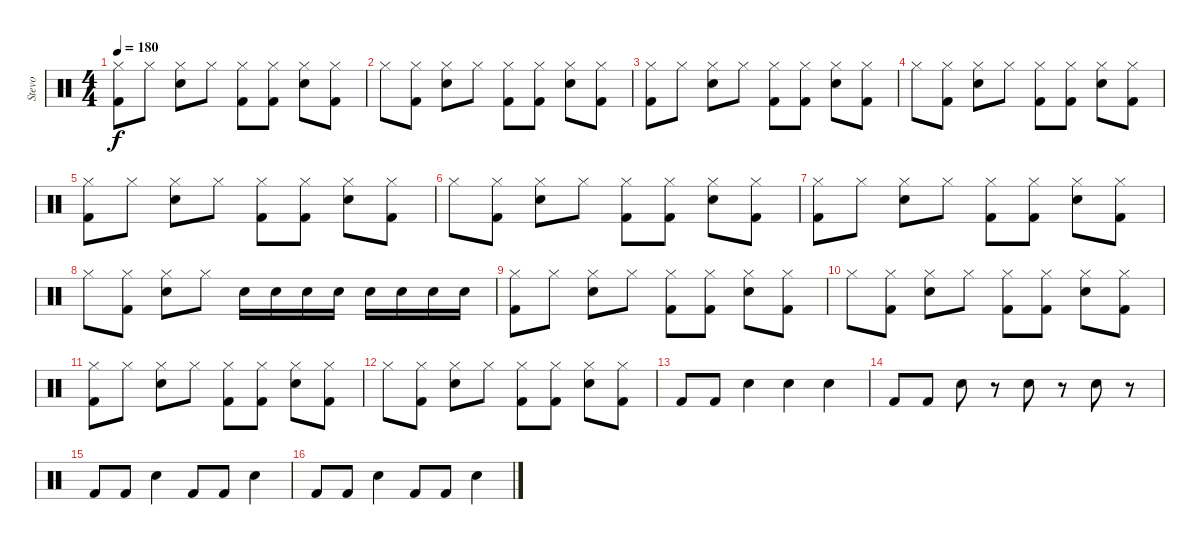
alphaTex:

\track ("Stevo" "Stevo") {instrument percussion}
\staff {score}
\articulation defaults
\ts (4 4)
\tempo 180
\clef neutral
\ks c
("Hi-Hat (closed)" "Kick (hit) 2").8{dy f} "Hi-Hat (closed)".8 ("Hi-Hat (closed)" "Electric Snare (hit)").8 "Hi-Hat (closed)".8 ("Hi-Hat (closed)" "Kick (hit) 2").8 ("Hi-Hat (closed)" "Kick (hit) 2").8 ("Hi-Hat (closed)" "Electric Snare (hit)").8 ("Hi-Hat (closed)" "Kick (hit) 2").8 |
"Hi-Hat (closed)".8 ("Hi-Hat (closed)" "Kick (hit) 2").8 ("Hi-Hat (closed)" "Electric Snare (hit)").8 "Hi-Hat (closed)".8 ("Hi-Hat (closed)" "Kick (hit) 2").8 ("Hi-Hat (closed)" "Kick (hit) 2").8 ("Hi-Hat (closed)" "Electric Snare (hit)").8 ("Hi-Hat (closed)" "Kick (hit) 2").8 |
("Hi-Hat (closed)" "Kick (hit) 2").8 "Hi-Hat (closed)".8 ("Hi-Hat (closed)" "Electric Snare (hit)").8 "Hi-Hat (closed)".8 ("Hi-Hat (closed)" "Kick (hit) 2").8 ("Hi-Hat (closed)" "Kick (hit) 2").8 ("Hi-Hat (closed)" "Electric Snare (hit)").8 ("Hi-Hat (closed)" "Kick (hit) 2").8 |
"Hi-Hat (closed)".8 ("Hi-Hat (closed)" "Kick (hit) 2").8 ("Hi-Hat (closed)" "Electric Snare (hit)").8 "Hi-Hat (closed)".8 ("Hi-Hat (closed)" "Kick (hit) 2").8 ("Hi-Hat (closed)" "Kick (hit) 2").8 ("Hi-Hat (closed)" "Electric Snare (hit)").8 ("Hi-Hat (closed)" "Kick (hit) 2").8 |
("Hi-Hat (closed)" "Kick (hit) 2").8 "Hi-Hat (closed)".8 ("Hi-Hat (closed)" "Electric Snare (hit)").8 "Hi-Hat (closed)".8 ("Hi-Hat (closed)" "Kick (hit) 2").8 ("Hi-Hat (closed)" "Kick (hit) 2").8 ("Hi-Hat (closed)" "Electric Snare (hit)").8 ("Hi-Hat (closed)" "Kick (hit) 2").8 |
"Hi-Hat (closed)".8 ("Hi-Hat (closed)" "Kick (hit) 2").8 ("Hi-Hat (closed)" "Electric Snare (hit)").8 "Hi-Hat (closed)".8 ("Hi-Hat (closed)" "Kick (hit) 2").8 ("Hi-Hat (closed)" "Kick (hit) 2").8 ("Hi-Hat (closed)" "Electric Snare (hit)").8 ("Hi-Hat (closed)" "Kick (hit) 2").8 |
("Hi-Hat (closed)" "Kick (hit) 2").8 "Hi-Hat (closed)".8 ("Hi-Hat (closed)" "Electric Snare (hit)").8 "Hi-Hat (closed)".8 ("Hi-Hat (closed)" "Kick (hit) 2").8 ("Hi-Hat (closed)" "Kick (hit) 2").8 ("Hi-Hat (closed)" "Electric Snare (hit)").8 ("Hi-Hat (closed)" "Kick (hit) 2").8 |
"Hi-Hat (closed)".8 ("Hi-Hat (closed)" "Kick (hit) 2").8 ("Hi-Hat (closed)" "Electric Snare (hit)").8 "Hi-Hat (closed)".8 "Electric Snare (hit)".16 "Electric Snare (hit)".16 "Electric Snare (hit)".16 "Electric Snare (hit)".16 "Electric Snare (hit)".16 "Electric Snare (hit)".16 "Electric Snare (hit)".16 "Electric Snare (hit)".16 |
("Hi-Hat (closed)" "Kick (hit) 2").8 "Hi-Hat (closed)".8 ("Hi-Hat (closed)" "Electric Snare (hit)").8 "Hi-Hat (closed)".8 ("Hi-Hat (closed)" "Kick (hit) 2").8 ("Hi-Hat (closed)" "Kick (hit) 2").8 ("Hi-Hat (closed)" "Electric Snare (hit)").8 ("Hi-Hat (closed)" "Kick (hit) 2").8 |
"Hi-Hat (closed)".8 ("Hi-Hat (closed)" "Kick (hit) 2").8 ("Hi-Hat (closed)" "Electric Snare (hit)").8 "Hi-Hat (closed)".8 ("Hi-Hat (closed)" "Kick (hit) 2").8 ("Hi-Hat (closed)" "Kick (hit) 2").8 ("Hi-Hat (closed)" "Electric Snare (hit)").8 ("Hi-Hat (closed)" "Kick (hit) 2").8 |
("Hi-Hat (closed)" "Kick (hit) 2").8 "Hi-Hat (closed)".8 ("Hi-Hat (closed)" "Electric Snare (hit)").8 "Hi-Hat (closed)".8 ("Hi-Hat (closed)" "Kick (hit) 2").8 ("Hi-Hat (closed)" "Kick (hit) 2").8 ("Hi-Hat (closed)" "Electric Snare (hit)").8 ("Hi-Hat (closed)" "Kick (hit) 2").8 |
"Hi-Hat (closed)".8 ("Hi-Hat (closed)" "Kick (hit) 2").8 ("Hi-Hat (closed)" "Electric Snare (hit)").8 "Hi-Hat (closed)".8 ("Hi-Hat (closed)" "Kick (hit) 2").8 ("Hi-Hat (closed)" "Kick (hit) 2").8 ("Hi-Hat (closed)" "Electric Snare (hit)").8 ("Hi-Hat (closed)" "Kick (hit) 2").8 |
"Kick (hit) 2".8 "Kick (hit) 2".8 "Electric Snare (hit)".4 "Electric Snare (hit)".4 "Electric Snare (hit)".4 |
"Kick (hit) 2".8 "Kick (hit) 2".8 "Electric Snare (hit)".8 r.8 "Electric Snare (hit)".8 r.8 "Electric Snare (hit)".8 r.8 |
"Kick (hit) 2".8 "Kick (hit) 2".8 "Electric Snare (hit)".4 "Kick (hit) 2".8 "Kick (hit) 2".8 "Electric Snare (hit)".4 |
"Kick (hit) 2".8 "Kick (hit) 2".8 "Electric Snare (hit)".4 "Kick (hit) 2".8 "Kick (hit) 2".8 "Electric Snare (hit)".4
